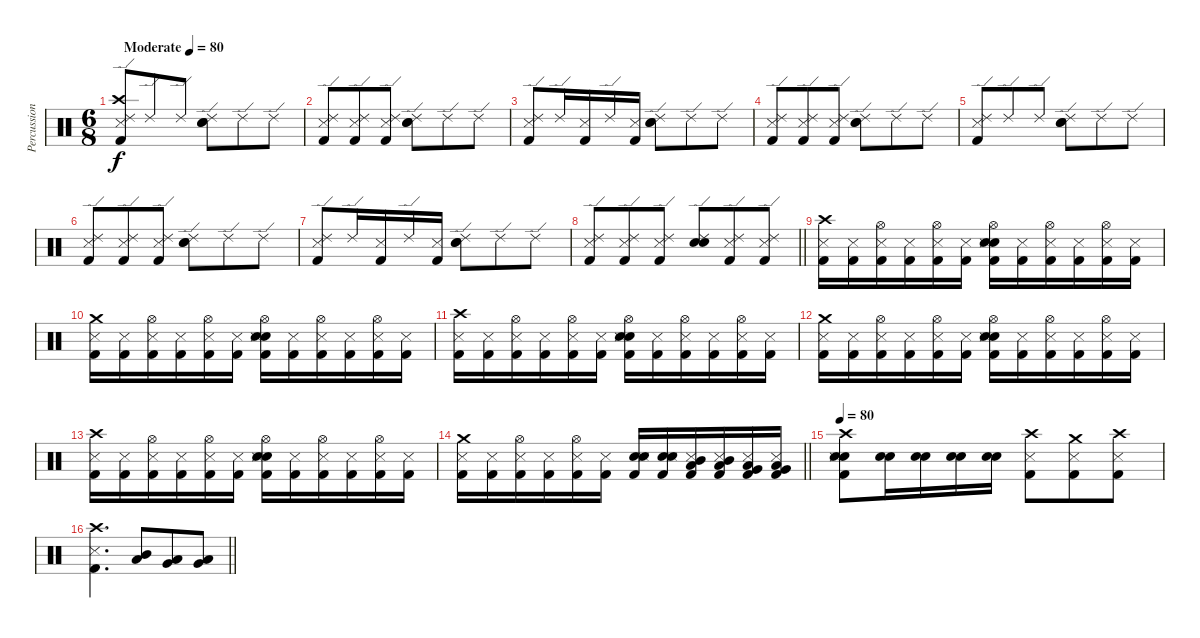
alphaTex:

\track ("Percussion" "Percussion") {instrument percussion}
\staff {score}
\articulation defaults
\ts (6 8)
\tempo (80 "Moderate")
\clef neutral
\ks c
("Ride (edge) 2" "Crash high (hit)" "Snare (side stick) 3" "Kick (hit) 2").8{dy f} "Ride (edge) 2".8 "Ride (edge) 2".8 ("Ride (edge) 2" "Electric Snare (hit)" "Snare (hit) 2").8 "Ride (edge) 2".8 "Ride (edge) 2".8 |
("Ride (edge) 2" "Snare (side stick) 3" "Kick (hit) 2").8 ("Ride (edge) 2" "Snare (side stick) 3" "Kick (hit) 2").8 ("Ride (edge) 2" "Snare (side stick) 3" "Kick (hit) 2").8 ("Ride (edge) 2" "Electric Snare (hit)" "Snare (hit) 2").8 "Ride (edge) 2".8 "Ride (edge) 2".8 |
("Ride (edge) 2" "Snare (side stick) 3" "Kick (hit) 2").8 "Ride (edge) 2".16 ("Snare (side stick) 3" "Kick (hit) 2").16 "Ride (edge) 2".16 ("Snare (side stick) 3" "Kick (hit) 2").16 ("Ride (edge) 2" "Electric Snare (hit)" "Snare (hit) 2").8 "Ride (edge) 2".8 "Ride (edge) 2".8 |
("Ride (edge) 2" "Snare (side stick) 3" "Kick (hit) 2").8 ("Ride (edge) 2" "Snare (side stick) 3" "Kick (hit) 2").8 ("Ride (edge) 2" "Snare (side stick) 3" "Kick (hit) 2").8 ("Ride (edge) 2" "Electric Snare (hit)" "Snare (hit) 2").8 "Ride (edge) 2".8 "Ride (edge) 2".8 |
("Ride (edge) 2" "Snare (side stick) 3" "Kick (hit) 2").8 "Ride (edge) 2".8 "Ride (edge) 2".8 ("Ride (edge) 2" "Electric Snare (hit)" "Snare (hit) 2").8 "Ride (edge) 2".8 "Ride (edge) 2".8 |
("Ride (edge) 2" "Snare (side stick) 3" "Kick (hit) 2").8 ("Ride (edge) 2" "Snare (side stick) 3" "Kick (hit) 2").8 ("Ride (edge) 2" "Snare (side stick) 3" "Kick (hit) 2").8 ("Ride (edge) 2" "Electric Snare (hit)" "Snare (hit) 2").8 "Ride (edge) 2".8 "Ride (edge) 2".8 |
("Ride (edge) 2" "Snare (side stick) 3" "Kick (hit) 2").8 "Ride (edge) 2".16 ("Snare (side stick) 3" "Kick (hit) 2").16 "Ride (edge) 2".16 ("Snare (side stick) 3" "Kick (hit) 2").16 ("Ride (edge) 2" "Electric Snare (hit)" "Snare (hit) 2").8 "Ride (edge) 2".8 "Ride (edge) 2".8 |
\barLineRight lightlight
("Ride (edge) 2" "Snare (side stick) 3" "Kick (hit) 2").8 ("Ride (edge) 2" "Snare (side stick) 3" "Kick (hit) 2").8 ("Ride (edge) 2" "Snare (side stick) 3" "Kick (hit) 2").8 ("Ride (edge) 2" "Electric Snare (hit)" "Snare (hit) 2").8 ("Ride (edge) 2" "Snare (side stick) 3" "Kick (hit) 2").8 ("Ride (edge) 2" "Snare (side stick) 3" "Kick (hit) 2").8 |
("Crash high (hit)" "Snare (side stick) 3" "Kick (hit) 2").16 ("Snare (side stick) 3" "Kick (hit) 2").16 ("Hi-Hat (open)" "Snare (side stick) 3" "Kick (hit) 2").16 ("Snare (side stick) 3" "Kick (hit) 2").16 ("Hi-Hat (open)" "Snare (side stick) 3" "Kick (hit) 2").16 ("Snare (side stick) 3" "Kick (hit) 2").16 ("Hi-Hat (open)" "Electric Snare (hit)" "Snare (hit) 2" "Snare (side stick) 3" "Kick (hit) 2").16 ("Snare (side stick) 3" "Kick (hit) 2").16 ("Hi-Hat (open)" "Snare (side stick) 3" "Kick (hit) 2").16 ("Snare (side stick) 3" "Kick (hit) 2").16 ("Hi-Hat (open)" "Snare (side stick) 3" "Kick (hit) 2").16 ("Snare (side stick) 3" "Kick (hit) 2").16 |
("Crash medium (hit)" "Snare (side stick) 3" "Kick (hit) 2").16 ("Snare (side stick) 3" "Kick (hit) 2").16 ("Hi-Hat (open)" "Snare (side stick) 3" "Kick (hit) 2").16 ("Snare (side stick) 3" "Kick (hit) 2").16 ("Hi-Hat (open)" "Snare (side stick) 3" "Kick (hit) 2").16 ("Snare (side stick) 3" "Kick (hit) 2").16 ("Hi-Hat (open)" "Electric Snare (hit)" "Snare (hit) 2" "Snare (side stick) 3" "Kick (hit) 2").16 ("Snare (side stick) 3" "Kick (hit) 2").16 ("Hi-Hat (open)" "Snare (side stick) 3" "Kick (hit) 2").16 ("Snare (side stick) 3" "Kick (hit) 2").16 ("Hi-Hat (open)" "Snare (side stick) 3" "Kick (hit) 2").16 ("Snare (side stick) 3" "Kick (hit) 2").16 |
("Crash high (hit)" "Snare (side stick) 3" "Kick (hit) 2").16 ("Snare (side stick) 3" "Kick (hit) 2").16 ("Hi-Hat (open)" "Snare (side stick) 3" "Kick (hit) 2").16 ("Snare (side stick) 3" "Kick (hit) 2").16 ("Hi-Hat (open)" "Snare (side stick) 3" "Kick (hit) 2").16 ("Snare (side stick) 3" "Kick (hit) 2").16 ("Hi-Hat (open)" "Electric Snare (hit)" "Snare (hit) 2" "Snare (side stick) 3" "Kick (hit) 2").16 ("Snare (side stick) 3" "Kick (hit) 2").16 ("Hi-Hat (open)" "Snare (side stick) 3" "Kick (hit) 2").16 ("Snare (side stick) 3" "Kick (hit) 2").16 ("Hi-Hat (open)" "Snare (side stick) 3" "Kick (hit) 2").16 ("Snare (side stick) 3" "Kick (hit) 2").16 |
("Crash medium (hit)" "Snare (side stick) 3" "Kick (hit) 2").16 ("Snare (side stick) 3" "Kick (hit) 2").16 ("Hi-Hat (open)" "Snare (side stick) 3" "Kick (hit) 2").16 ("Snare (side stick) 3" "Kick (hit) 2").16 ("Hi-Hat (open)" "Snare (side stick) 3" "Kick (hit) 2").16 ("Snare (side stick) 3" "Kick (hit) 2").16 ("Hi-Hat (open)" "Electric Snare (hit)" "Snare (hit) 2" "Snare (side stick) 3" "Kick (hit) 2").16 ("Snare (side stick) 3" "Kick (hit) 2").16 ("Hi-Hat (open)" "Snare (side stick) 3" "Kick (hit) 2").16 ("Snare (side stick) 3" "Kick (hit) 2").16 ("Hi-Hat (open)" "Snare (side stick) 3" "Kick (hit) 2").16 ("Snare (side stick) 3" "Kick (hit) 2").16 |
("Crash high (hit)" "Snare (side stick) 3" "Kick (hit) 2").16 ("Snare (side stick) 3" "Kick (hit) 2").16 ("Hi-Hat (open)" "Snare (side stick) 3" "Kick (hit) 2").16 ("Snare (side stick) 3" "Kick (hit) 2").16 ("Hi-Hat (open)" "Snare (side stick) 3" "Kick (hit) 2").16 ("Snare (side stick) 3" "Kick (hit) 2").16 ("Hi-Hat (open)" "Electric Snare (hit)" "Snare (hit) 2" "Snare (side stick) 3" "Kick (hit) 2").16 ("Snare (side stick) 3" "Kick (hit) 2").16 ("Hi-Hat (open)" "Snare (side stick) 3" "Kick (hit) 2").16 ("Snare (side stick) 3" "Kick (hit) 2").16 ("Hi-Hat (open)" "Snare (side stick) 3" "Kick (hit) 2").16 ("Snare (side stick) 3" "Kick (hit) 2").16 |
\barLineRight lightlight
("Crash medium (hit)" "Snare (side stick) 3" "Kick (hit) 2").16 ("Snare (side stick) 3" "Kick (hit) 2").16 ("Hi-Hat (open)" "Snare (side stick) 3" "Kick (hit) 2").16 ("Snare (side stick) 3" "Kick (hit) 2").16 ("Hi-Hat (open)" "Snare (side stick) 3" "Kick (hit) 2").16 ("Snare (side stick) 3" "Kick (hit) 2").16 ("Electric Snare (hit)" "Snare (hit) 2" "Snare (side stick) 3" "Kick (hit) 2").16 ("Electric Snare (hit)" "Snare (hit) 2" "Snare (side stick) 3" "Kick (hit) 2").16 ("Mid Tom (hit)" "Low Tom (hit)" "Snare (side stick) 3" "Kick (hit) 2").16 ("Mid Tom (hit)" "Low Tom (hit)" "Snare (side stick) 3" "Kick (hit) 2").16 ("Low Tom (hit)" "Very Low Tom (hit)" "Snare (side stick) 3" "Kick (hit) 2").16 ("Low Tom (hit)" "Very Low Tom (hit)" "Snare (side stick) 3" "Kick (hit) 2").16 |
\tempo 80
("Crash high (hit)" "Electric Snare (hit)" "Snare (hit) 2" "Snare (side stick) 3" "Kick (hit) 2").8 ("Electric Snare (hit)" "Snare (hit) 2").16 ("Electric Snare (hit)" "Snare (hit) 2").16 ("Electric Snare (hit)" "Snare (hit) 2").16 ("Electric Snare (hit)" "Snare (hit) 2").16 ("Crash high (hit)" "Snare (side stick) 3" "Kick (hit) 2").8 ("Crash medium (hit)" "Snare (side stick) 3" "Kick (hit) 2").8 ("Crash high (hit)" "Snare (side stick) 3" "Kick (hit) 2").8 |
\barLineRight lightlight
("Crash high (hit)" "Snare (side stick) 3" "Kick (hit) 2").4{d} ("Mid Tom (hit)" "Low Tom (hit)").8 ("Low Tom (hit)" "Very Low Tom (hit)").8 ("Very Low Tom (hit)" "Low Floor Tom (hit)").8
